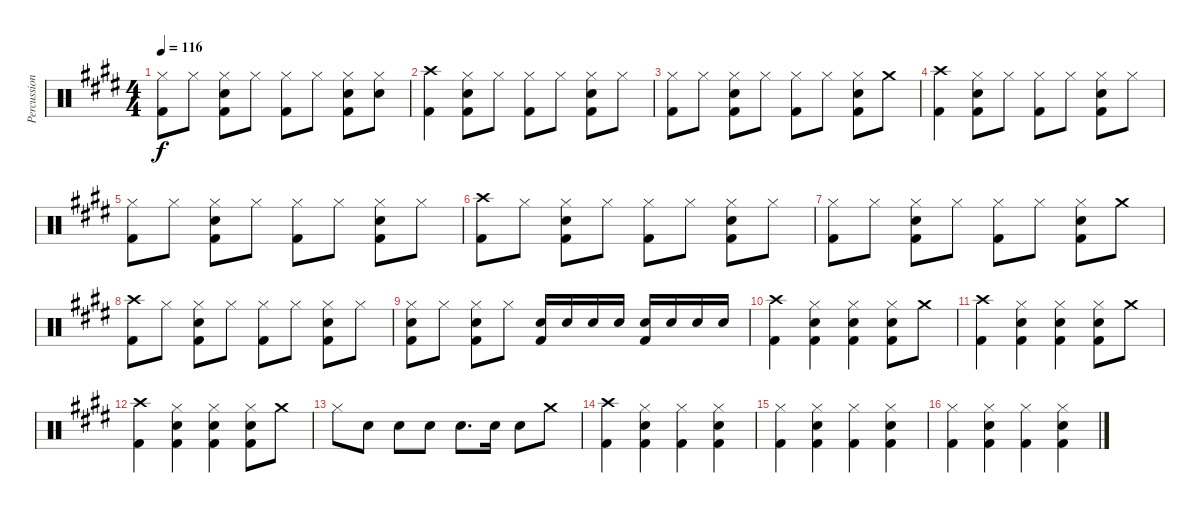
\track ("Percussion" "Percussion") {instrument percussion}
\staff {score}
\articulation defaults
\ts (4 4)
\tempo 116
\clef neutral
\ks e
("Hi-Hat (closed)" "Kick (hit) 2").8{dy f} "Hi-Hat (closed)".8 ("Hi-Hat (closed)" "Snare (hit) 2" "Kick (hit) 2").8 "Hi-Hat (closed)".8 ("Hi-Hat (closed)" "Kick (hit) 2").8 "Hi-Hat (closed)".8 ("Hi-Hat (closed)" "Snare (hit) 2" "Kick (hit) 2").8 ("Hi-Hat (closed)" "Snare (hit) 2").8 |
("Crash high (hit)" "Kick (hit) 2").4 ("Hi-Hat (closed)" "Snare (hit) 2" "Kick (hit) 2").8 "Hi-Hat (closed)".8 ("Hi-Hat (closed)" "Kick (hit) 2").8 "Hi-Hat (closed)".8 ("Hi-Hat (closed)" "Snare (hit) 2" "Kick (hit) 2").8 "Hi-Hat (closed)".8 |
("Hi-Hat (closed)" "Kick (hit) 2").8 "Hi-Hat (closed)".8 ("Hi-Hat (closed)" "Snare (hit) 2" "Kick (hit) 2").8 "Hi-Hat (closed)".8 ("Hi-Hat (closed)" "Kick (hit) 2").8 "Hi-Hat (closed)".8 ("Hi-Hat (closed)" "Snare (hit) 2" "Kick (hit) 2").8 "Crash medium (hit)".8 |
("Crash high (hit)" "Kick (hit) 2").4 ("Hi-Hat (closed)" "Snare (hit) 2" "Kick (hit) 2").8 "Hi-Hat (closed)".8 ("Hi-Hat (closed)" "Kick (hit) 2").8 "Hi-Hat (closed)".8 ("Hi-Hat (closed)" "Snare (hit) 2" "Kick (hit) 2").8 "Hi-Hat (closed)".8 |
("Hi-Hat (closed)" "Kick (hit) 2").8 "Hi-Hat (closed)".8 ("Hi-Hat (closed)" "Snare (hit) 2" "Kick (hit) 2").8 "Hi-Hat (closed)".8 ("Hi-Hat (closed)" "Kick (hit) 2").8 "Hi-Hat (closed)".8 ("Hi-Hat (closed)" "Snare (hit) 2" "Kick (hit) 2").8 "Hi-Hat (closed)".8 |
("Crash high (hit)" "Kick (hit) 2").8 "Hi-Hat (closed)".8 ("Hi-Hat (closed)" "Snare (hit) 2" "Kick (hit) 2").8 "Hi-Hat (closed)".8 ("Hi-Hat (closed)" "Kick (hit) 2").8 "Hi-Hat (closed)".8 ("Hi-Hat (closed)" "Snare (hit) 2" "Kick (hit) 2").8 "Hi-Hat (closed)".8 |
("Hi-Hat (closed)" "Kick (hit) 2").8 "Hi-Hat (closed)".8 ("Hi-Hat (closed)" "Snare (hit) 2" "Kick (hit) 2").8 "Hi-Hat (closed)".8 ("Hi-Hat (closed)" "Kick (hit) 2").8 "Hi-Hat (closed)".8 ("Hi-Hat (closed)" "Snare (hit) 2" "Kick (hit) 2").8 "Crash medium (hit)".8 |
("Crash high (hit)" "Kick (hit) 2").8 "Hi-Hat (closed)".8 ("Hi-Hat (closed)" "Snare (hit) 2" "Kick (hit) 2").8 "Hi-Hat (closed)".8 ("Hi-Hat (closed)" "Kick (hit) 2").8 "Hi-Hat (closed)".8 ("Hi-Hat (closed)" "Snare (hit) 2" "Kick (hit) 2").8 "Hi-Hat (closed)".8 |
("Hi-Hat (closed)" "Snare (hit) 2" "Kick (hit) 2").8 "Hi-Hat (closed)".8 ("Hi-Hat (closed)" "Snare (hit) 2" "Kick (hit) 2").8 "Hi-Hat (closed)".8 ("Snare (hit) 2" "Kick (hit) 2").16 "Snare (hit) 2".16 "Snare (hit) 2".16 "Snare (hit) 2".16 ("Snare (hit) 2" "Kick (hit) 2").16 "Snare (hit) 2".16 "Snare (hit) 2".16 "Snare (hit) 2".16 |
("Crash high (hit)" "Kick (hit) 2").4 ("Hi-Hat (closed)" "Snare (hit) 2" "Kick (hit) 2").4 ("Hi-Hat (closed)" "Snare (hit) 2" "Kick (hit) 2").4 ("Hi-Hat (closed)" "Snare (hit) 2" "Kick (hit) 2").8 "Crash medium (hit)".8 |
("Crash high (hit)" "Kick (hit) 2").4 ("Hi-Hat (closed)" "Snare (hit) 2" "Kick (hit) 2").4 ("Hi-Hat (closed)" "Snare (hit) 2" "Kick (hit) 2").4 ("Hi-Hat (closed)" "Snare (hit) 2" "Kick (hit) 2").8 "Crash medium (hit)".8 |
("Crash high (hit)" "Kick (hit) 2").4 ("Hi-Hat (closed)" "Snare (hit) 2" "Kick (hit) 2").4 ("Hi-Hat (closed)" "Snare (hit) 2" "Kick (hit) 2").4 ("Hi-Hat (closed)" "Snare (hit) 2" "Kick (hit) 2").8 "Crash medium (hit)".8 |
"Hi-Hat (closed)".8 "Snare (hit) 2".8 "Snare (hit) 2".8 "Snare (hit) 2".8 "Snare (hit) 2".8{d} "Snare (hit) 2".16 "Snare (hit) 2".8 "Crash medium (hit)".8 |
("Crash high (hit)" "Kick (hit) 2").4 ("Hi-Hat (closed)" "Snare (hit) 2" "Kick (hit) 2").4 ("Hi-Hat (closed)" "Kick (hit) 2").4 ("Hi-Hat (closed)" "Snare (hit) 2" "Kick (hit) 2").4 |
("Hi-Hat (closed)" "Kick (hit) 2").4 ("Hi-Hat (closed)" "Snare (hit) 2" "Kick (hit) 2").4 ("Hi-Hat (closed)" "Kick (hit) 2").4 ("Hi-Hat (closed)" "Snare (hit) 2" "Kick (hit) 2").4 |
("Hi-Hat (closed)" "Kick (hit) 2").4 ("Hi-Hat (closed)" "Snare (hit) 2" "Kick (hit) 2").4 ("Hi-Hat (closed)" "Kick (hit) 2").4 ("Hi-Hat (closed)" "Snare (hit) 2" "Kick (hit) 2").4
